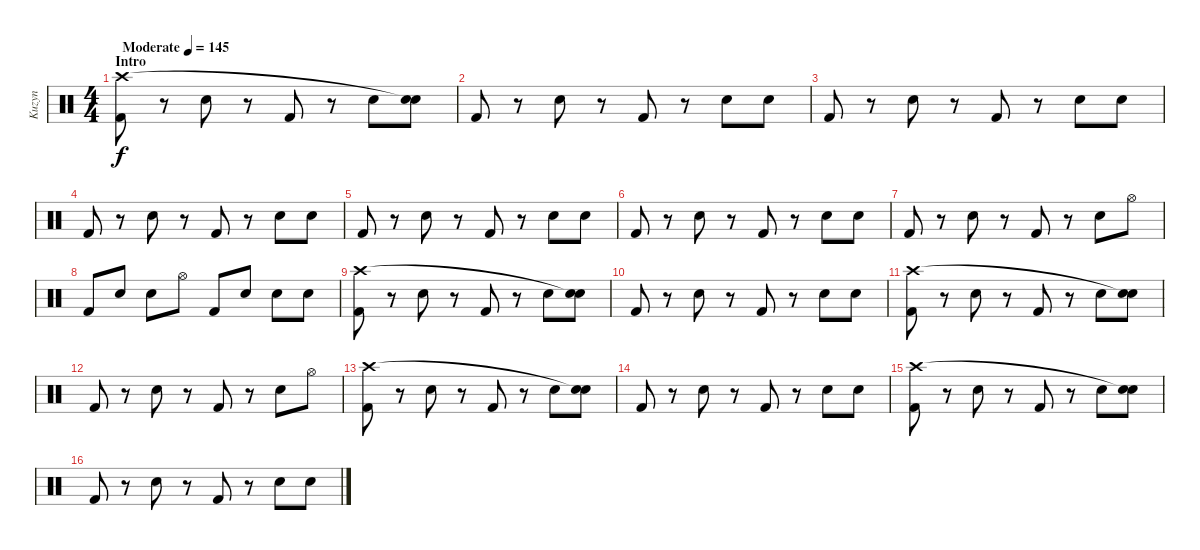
\track ("Kuzyn" "Kuzyn") {instrument percussion}
\staff {score}
\articulation defaults
\ts (4 4)
\section ("" "Intro")
\tempo (145 "Moderate")
\clef neutral
\ks c
("Kick (hit) 2" "Crash high (hit)").8{dy f} r.8 "Snare (hit) 2".8 r.8 "Kick (hit) 2".8 r.8 "Snare (hit) 2".8 ("Snare (hit) 2" "Snare (hit)"{t}).8 |
"Kick (hit) 2".8 r.8 "Snare (hit) 2".8 r.8 "Kick (hit) 2".8 r.8 "Snare (hit) 2".8 "Snare (hit) 2".8 |
"Kick (hit) 2".8 r.8 "Snare (hit) 2".8 r.8 "Kick (hit) 2".8 r.8 "Snare (hit) 2".8 "Snare (hit) 2".8 |
"Kick (hit) 2".8 r.8 "Snare (hit) 2".8 r.8 "Kick (hit) 2".8 r.8 "Snare (hit) 2".8 "Snare (hit) 2".8 |
"Kick (hit) 2".8 r.8 "Snare (hit) 2".8 r.8 "Kick (hit) 2".8 r.8 "Snare (hit) 2".8 "Snare (hit) 2".8 |
"Kick (hit) 2".8 r.8 "Snare (hit) 2".8 r.8 "Kick (hit) 2".8 r.8 "Snare (hit) 2".8 "Snare (hit) 2".8 |
"Kick (hit) 2".8 r.8 "Snare (hit) 2".8 r.8 "Kick (hit) 2".8 r.8 "Snare (hit) 2".8 "Hi-Hat (open)".8 |
"Kick (hit) 2".8 "Snare (hit) 2".8 "Snare (hit) 2".8 "Hi-Hat (open)".8 "Kick (hit) 2".8 "Snare (hit) 2".8 "Snare (hit) 2".8 "Snare (hit) 2".8 |
("Kick (hit) 2" "Crash high (hit)").8 r.8 "Snare (hit) 2".8 r.8 "Kick (hit) 2".8 r.8 "Snare (hit) 2".8 ("Snare (hit) 2" "Snare (hit)"{t}).8 |
"Kick (hit) 2".8 r.8 "Snare (hit) 2".8 r.8 "Kick (hit) 2".8 r.8 "Snare (hit) 2".8 "Snare (hit) 2".8 |
("Kick (hit) 2" "Crash high (hit)").8 r.8 "Snare (hit) 2".8 r.8 "Kick (hit) 2".8 r.8 "Snare (hit) 2".8 ("Snare (hit) 2" "Snare (hit)"{t}).8 |
"Kick (hit) 2".8 r.8 "Snare (hit) 2".8 r.8 "Kick (hit) 2".8 r.8 "Snare (hit) 2".8 "Hi-Hat (open)".8 |
("Kick (hit) 2" "Crash high (hit)").8 r.8 "Snare (hit) 2".8 r.8 "Kick (hit) 2".8 r.8 "Snare (hit) 2".8 ("Snare (hit) 2" "Snare (hit)"{t}).8 |
"Kick (hit) 2".8 r.8 "Snare (hit) 2".8 r.8 "Kick (hit) 2".8 r.8 "Snare (hit) 2".8 "Snare (hit) 2".8 |
("Kick (hit) 2" "Crash high (hit)").8 r.8 "Snare (hit) 2".8 r.8 "Kick (hit) 2".8 r.8 "Snare (hit) 2".8 ("Snare (hit) 2" "Snare (hit)"{t}).8 |
"Kick (hit) 2".8 r.8 "Snare (hit) 2".8 r.8 "Kick (hit) 2".8 r.8 "Snare (hit) 2".8 "Snare (hit) 2".8
